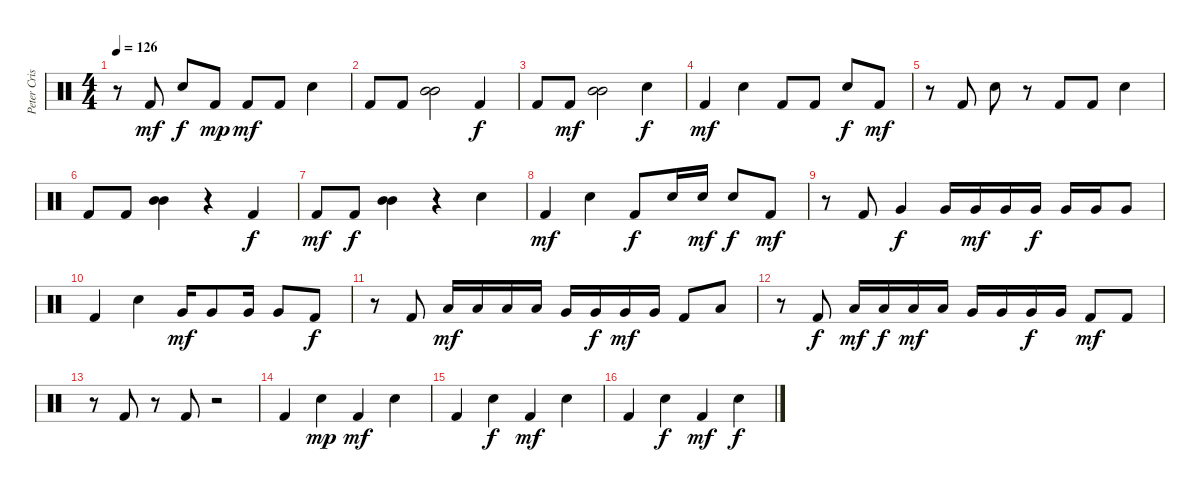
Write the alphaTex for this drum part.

\track ("Peter Criss" "Peter Cris") {instrument percussion}
\staff {score}
\articulation defaults
\ts (4 4)
\tempo 126
\clef neutral
\ks c
r.8{dy mf} "Kick (hit) 2".8 "Electric Snare (hit)".8{dy f} "Kick (hit) 2".8{dy mp} "Kick (hit) 2".8{dy mf} "Kick (hit) 2".8 "Electric Snare (hit)".4 |
"Kick (hit) 2".8 "Kick (hit) 2".8 ("Mid Tom (hit)" "Mid Tom (hit)").2 "Kick (hit) 2".4{dy f} |
"Kick (hit) 2".8 "Kick (hit) 2".8{dy mf} ("Mid Tom (hit)" "Mid Tom (hit)").2 "Electric Snare (hit)".4{dy f} |
"Kick (hit) 2".4{dy mf} "Electric Snare (hit)".4 "Kick (hit) 2".8 "Kick (hit) 2".8 "Electric Snare (hit)".8{dy f} "Kick (hit) 2".8{dy mf} |
r.8 "Kick (hit) 2".8 "Electric Snare (hit)".8 r.8 "Kick (hit) 2".8 "Kick (hit) 2".8 "Electric Snare (hit)".4 |
"Kick (hit) 2".8 "Kick (hit) 2".8 ("Mid Tom (hit)" "Mid Tom (hit)").4 r.4 "Kick (hit) 2".4{dy f} |
"Kick (hit) 2".8{dy mf} "Kick (hit) 2".8{dy f} ("Mid Tom (hit)" "Mid Tom (hit)").4 r.4 "Electric Snare (hit)".4 |
"Kick (hit) 2".4{dy mf} "Electric Snare (hit)".4 "Kick (hit) 2".8{dy f} "Electric Snare (hit)".16 "Electric Snare (hit)".16{dy mf} "Electric Snare (hit)".8{dy f} "Kick (hit) 2".8{dy mf} |
r.8 "Kick (hit) 2".8 "Very Low Tom (hit)".4{dy f} "Very Low Tom (hit)".16 "Very Low Tom (hit)".16{dy mf} "Very Low Tom (hit)".16 "Very Low Tom (hit)".16{dy f} "Very Low Tom (hit)".16 "Very Low Tom (hit)".16 "Very Low Tom (hit)".8 |
"Kick (hit) 2".4 "Electric Snare (hit)".4 "Very Low Tom (hit)".16{dy mf} "Very Low Tom (hit)".8 "Very Low Tom (hit)".16 "Very Low Tom (hit)".8 "Kick (hit) 2".8{dy f} |
r.8 "Kick (hit) 2".8 "Low Tom (hit)".16{dy mf} "Low Tom (hit)".16 "Low Tom (hit)".16 "Low Tom (hit)".16 "Very Low Tom (hit)".16 "Very Low Tom (hit)".16{dy f} "Very Low Tom (hit)".16{dy mf} "Very Low Tom (hit)".16 "Kick (hit) 2".8 "Low Tom (hit)".8 |
r.8 "Kick (hit) 2".8{dy f} "Low Tom (hit)".16{dy mf} "Low Tom (hit)".16{dy f} "Low Tom (hit)".16{dy mf} "Low Tom (hit)".16 "Very Low Tom (hit)".16 "Very Low Tom (hit)".16 "Very Low Tom (hit)".16{dy f} "Very Low Tom (hit)".16 "Kick (hit) 2".8{dy mf} "Kick (hit) 2".8 |
r.8 "Kick (hit) 2".8 r.8 "Kick (hit) 2".8 r.2 |
"Kick (hit) 2".4 "Electric Snare (hit)".4{dy mp} "Kick (hit) 2".4{dy mf} "Electric Snare (hit)".4 |
"Kick (hit) 2".4 "Electric Snare (hit)".4{dy f} "Kick (hit) 2".4{dy mf} "Electric Snare (hit)".4 |
"Kick (hit) 2".4 "Electric Snare (hit)".4{dy f} "Kick (hit) 2".4{dy mf} "Electric Snare (hit)".4{dy f}
